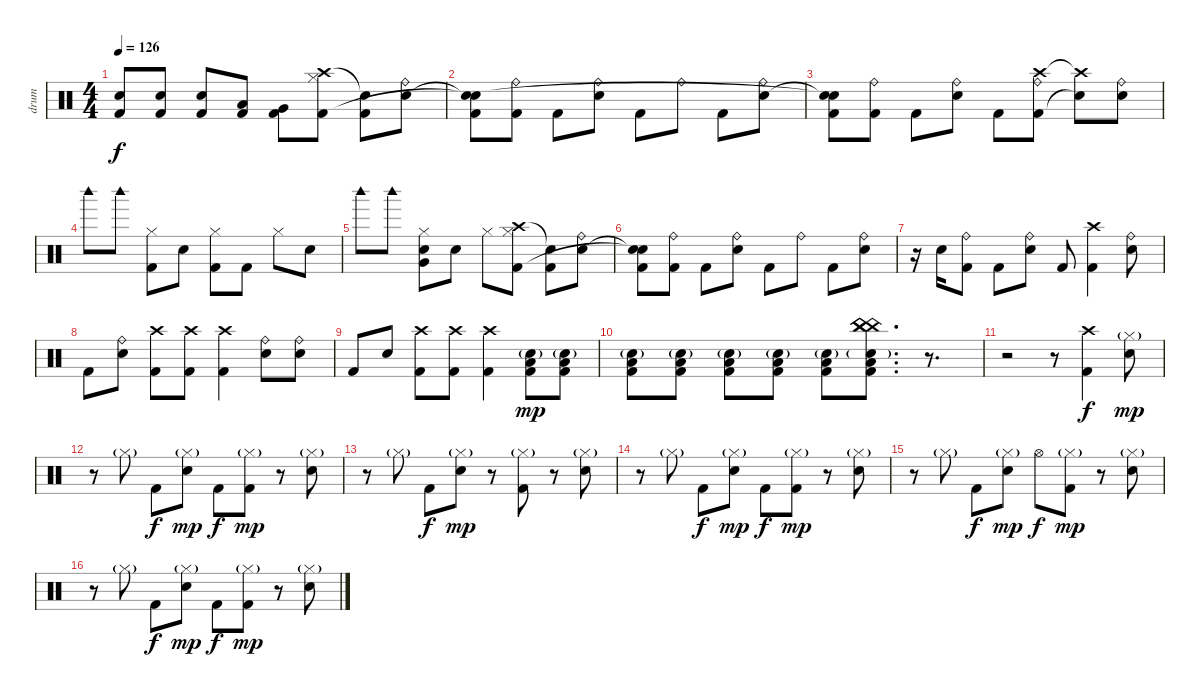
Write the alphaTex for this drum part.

\track ("drum" "drum") {instrument percussion}
\staff {score}
\articulation defaults
\ts (4 4)
\tempo 126
\clef neutral
\ks c
("Snare (hit) 2" "Kick (hit) 2").8{dy f} ("Snare (hit) 2" "Kick (hit) 2").8 ("Snare (hit) 2" "Kick (hit) 2").8 ("Low Tom (hit)" "Kick (hit) 2").8 ("Very Low Tom (hit)" "Kick (hit) 2").8 ("Crash high (hit)" "Hi-Hat (closed)" "Kick (hit) 2").8 ("Snare (hit)"{t} "Kick (hit) 2").8 ("Snare (hit) 2" "Ride (bell)").8 |
("Snare (hit)"{t} "Kick (hit) 2" "Snare (hit)"{t}).8 ("Kick (hit) 2" "Ride (bell)").8 "Kick (hit) 2".8 ("Snare (hit) 2" "Ride (bell)").8 "Kick (hit) 2".8 "Ride (bell)".8 "Kick (hit) 2".8 ("Snare (hit) 2" "Ride (bell)").8 |
("Snare (hit)"{t} "Kick (hit) 2" "Snare (hit)"{t}).8 ("Kick (hit) 2" "Ride (bell)").8 "Kick (hit) 2".8 ("Snare (hit) 2" "Ride (bell)").8 "Kick (hit) 2".8 ("Crash high (hit)" "Kick (hit) 2" "Ride (bell)").8 ("Crash high (hit)"{t} "Snare (hit)"{t}).8 ("Snare (hit) 2" "Ride (bell)").8 |
"Woodblock high (hit)".8 "Woodblock high (hit)".8 ("Hi-Hat (closed)" "Kick (hit) 2").8 "Snare (hit) 2".8 ("Hi-Hat (closed)" "Kick (hit) 2").8 "Kick (hit) 2".8 "Hi-Hat (closed)".8 "Snare (hit) 2".8 |
"Woodblock high (hit)".8 "Woodblock high (hit)".8 ("Hi-Hat (closed)" "Snare (hit) 2" "Very Low Tom (hit)").8 "Snare (hit) 2".8 "Hi-Hat (closed)".8 ("Crash high (hit)" "Hi-Hat (closed)" "Kick (hit) 2").8 ("Snare (hit)"{t} "Kick (hit) 2").8 ("Snare (hit) 2" "Ride (bell)").8 |
("Snare (hit)"{t} "Kick (hit) 2" "Snare (hit)"{t}).8 ("Kick (hit) 2" "Ride (bell)").8 "Kick (hit) 2".8 ("Snare (hit) 2" "Ride (bell)").8 "Kick (hit) 2".8 "Ride (bell)".8 "Kick (hit) 2".8 ("Snare (hit) 2" "Ride (bell)").8 |
r.16 "Snare (hit) 2".16 ("Kick (hit) 2" "Ride (bell)").8 "Kick (hit) 2".8 ("Snare (hit) 2" "Ride (bell)").8 "Kick (hit) 2".8 ("Crash high (hit)" "Kick (hit) 2").4 ("Snare (hit) 2" "Ride (bell)").8 |
"Kick (hit) 2".8 ("Snare (hit) 2" "Ride (bell)").8 ("Crash high (hit)" "Kick (hit) 2").8 ("Crash high (hit)" "Kick (hit) 2").8 ("Crash high (hit)" "Kick (hit) 2").4 ("Snare (hit) 2" "Ride (bell)").8 ("Snare (hit) 2" "Ride (bell)").8 |
"Kick (hit) 2".8 "Snare (hit) 2".8 ("Crash high (hit)" "Kick (hit) 2").8 ("Crash high (hit)" "Kick (hit) 2").8 ("Crash high (hit)" "Kick (hit) 2").4 ("Low Floor Tom (hit)" "Snare (hit) 2"{g} "Kick (hit) 2").8{dy mp} ("Low Floor Tom (hit)" "Snare (hit) 2"{g} "Kick (hit) 2").8 |
("Low Floor Tom (hit)" "Snare (hit) 2"{g} "Kick (hit) 2").8 ("Low Floor Tom (hit)" "Snare (hit) 2"{g} "Kick (hit) 2").8 ("Low Floor Tom (hit)" "Snare (hit) 2"{g} "Kick (hit) 2").8 ("Low Floor Tom (hit)" "Snare (hit) 2"{g} "Kick (hit) 2").8 ("Low Floor Tom (hit)" "Snare (hit) 2"{g} "Kick (hit) 2").8 ("China (hit)" "China (hit)" "Low Floor Tom (hit)" "Snare (hit) 2"{g} "Kick (hit) 2" "China (hit)").8{d} r.8{d} |
r.2 r.8 ("Crash high (hit)" "Kick (hit) 2").4{dy f} ("Hi-Hat (closed)"{g} "Snare (hit) 2").8{dy mp} |
r.8 "Hi-Hat (closed)"{g}.8 "Kick (hit) 2".8{dy f} ("Hi-Hat (closed)"{g} "Snare (hit) 2").8{dy mp} "Kick (hit) 2".8{dy f} ("Hi-Hat (closed)"{g} "Kick (hit) 2").8{dy mp} r.8 ("Hi-Hat (closed)"{g} "Snare (hit) 2").8 |
r.8 "Hi-Hat (closed)"{g}.8 "Kick (hit) 2".8{dy f} ("Hi-Hat (closed)"{g} "Snare (hit) 2").8{dy mp} r.8 ("Hi-Hat (closed)"{g} "Kick (hit) 2").8 r.8 ("Hi-Hat (closed)"{g} "Snare (hit) 2").8 |
r.8 "Hi-Hat (closed)"{g}.8 "Kick (hit) 2".8{dy f} ("Hi-Hat (closed)"{g} "Snare (hit) 2").8{dy mp} "Kick (hit) 2".8{dy f} ("Hi-Hat (closed)"{g} "Kick (hit) 2").8{dy mp} r.8 ("Hi-Hat (closed)"{g} "Snare (hit) 2").8 |
r.8 "Hi-Hat (closed)"{g}.8 "Kick (hit) 2".8{dy f} ("Hi-Hat (closed)"{g} "Snare (hit) 2").8{dy mp} "Hi-Hat (open)".8{dy f} ("Hi-Hat (closed)"{g} "Kick (hit) 2").8{dy mp} r.8 ("Hi-Hat (closed)"{g} "Snare (hit) 2").8 |
r.8 "Hi-Hat (closed)"{g}.8 "Kick (hit) 2".8{dy f} ("Hi-Hat (closed)"{g} "Snare (hit) 2").8{dy mp} "Kick (hit) 2".8{dy f} ("Hi-Hat (closed)"{g} "Kick (hit) 2").8{dy mp} r.8 ("Hi-Hat (closed)"{g} "Snare (hit) 2").8
